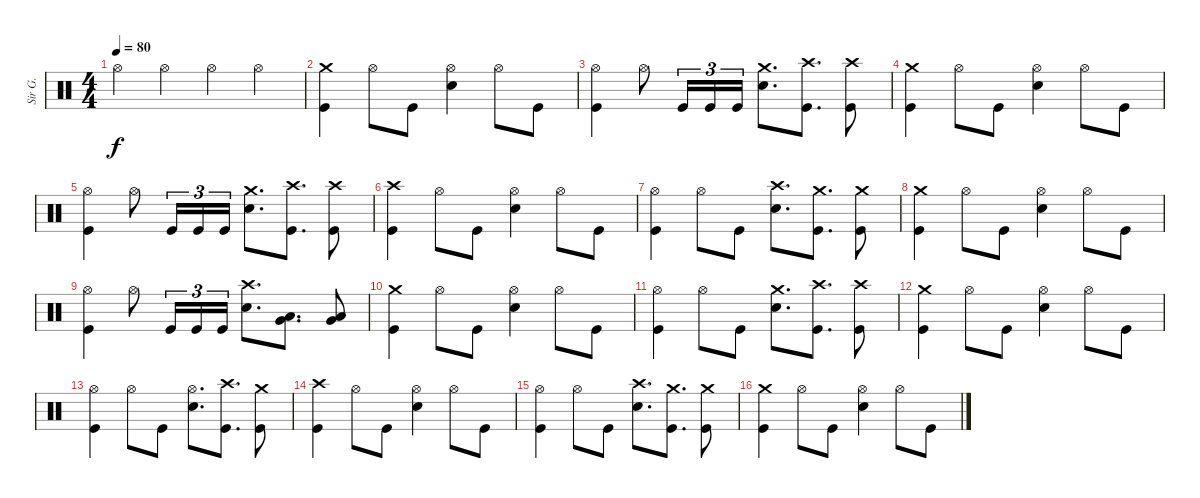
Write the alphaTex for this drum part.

\track ("Sir G." "Sir G.") {instrument percussion}
\staff {score}
\articulation defaults
\ts (4 4)
\tempo 80
\clef neutral
\ks c "Hi-Hat (open)".4{dy f} "Hi-Hat (open)".4 "Hi-Hat (open)".4 "Hi-Hat (open)".4
|
("Crash medium (hit)" "Kick (hit)").4 "Hi-Hat (open)".8 "Kick (hit)".8 ("Hi-Hat (open)" "Electric Snare (hit)").4 "Hi-Hat (open)".8 "Kick (hit)".8 |
("Hi-Hat (open)" "Kick (hit)").4 "Hi-Hat (open)".8 "Kick (hit)".16{tu (3 2)} "Kick (hit)".16{tu (3 2)} "Kick (hit)".16{tu (3 2)} ("Crash medium (hit)" "Electric Snare (hit)").8{d} ("Crash high (hit)" "Kick (hit)").8{d} ("Crash high (hit)" "Kick (hit)").8 |
("Crash medium (hit)" "Kick (hit)").4 "Hi-Hat (open)".8 "Kick (hit)".8 ("Hi-Hat (open)" "Electric Snare (hit)").4 "Hi-Hat (open)".8 "Kick (hit)".8 |
("Hi-Hat (open)" "Kick (hit)").4 "Hi-Hat (open)".8 "Kick (hit)".16{tu (3 2)} "Kick (hit)".16{tu (3 2)} "Kick (hit)".16{tu (3 2)} ("Crash medium (hit)" "Electric Snare (hit)").8{d} ("Crash high (hit)" "Kick (hit)").8{d} ("Crash high (hit)" "Kick (hit)").8 |
("Crash high (hit)" "Kick (hit)").4 "Hi-Hat (open)".8 "Kick (hit)".8 ("Hi-Hat (open)" "Electric Snare (hit)").4 "Hi-Hat (open)".8 "Kick (hit)".8 |
("Hi-Hat (open)" "Kick (hit)").4 "Hi-Hat (open)".8 "Kick (hit)".8 ("Crash high (hit)" "Electric Snare (hit)").8{d} ("Crash medium (hit)" "Kick (hit)").8{d} ("Crash medium (hit)" "Kick (hit)").8 |
("Crash medium (hit)" "Kick (hit)").4 "Hi-Hat (open)".8 "Kick (hit)".8 ("Hi-Hat (open)" "Electric Snare (hit)").4 "Hi-Hat (open)".8 "Kick (hit)".8 |
("Hi-Hat (open)" "Kick (hit)").4 "Hi-Hat (open)".8 "Kick (hit)".16{tu (3 2)} "Kick (hit)".16{tu (3 2)} "Kick (hit)".16{tu (3 2)} ("Crash high (hit)" "Electric Snare (hit)").8{d} ("Low Tom (hit)" "Very Low Tom (hit)").8{d} ("Low Tom (hit)" "Very Low Tom (hit)").8 |
("Crash medium (hit)" "Kick (hit)").4 "Hi-Hat (open)".8 "Kick (hit)".8 ("Hi-Hat (open)" "Electric Snare (hit)").4 "Hi-Hat (open)".8 "Kick (hit)".8 |
("Hi-Hat (open)" "Kick (hit)").4 "Hi-Hat (open)".8 "Kick (hit)".8 ("Crash medium (hit)" "Electric Snare (hit)").8{d} ("Crash high (hit)" "Kick (hit)").8{d} ("Crash high (hit)" "Kick (hit)").8 |
("Crash medium (hit)" "Kick (hit)").4 "Hi-Hat (open)".8 "Kick (hit)".8 ("Hi-Hat (open)" "Electric Snare (hit)").4 "Hi-Hat (open)".8 "Kick (hit)".8 |
("Hi-Hat (open)" "Kick (hit)").4 "Hi-Hat (open)".8 "Kick (hit)".8 ("Hi-Hat (open)" "Electric Snare (hit)").8{d} ("Crash high (hit)" "Kick (hit)").8{d} ("Crash medium (hit)" "Kick (hit)").8 |
("Crash high (hit)" "Kick (hit)").4 "Hi-Hat (open)".8 "Kick (hit)".8 ("Hi-Hat (open)" "Electric Snare (hit)").4 "Hi-Hat (open)".8 "Kick (hit)".8 |
("Hi-Hat (open)" "Kick (hit)").4 "Hi-Hat (open)".8 "Kick (hit)".8 ("Crash high (hit)" "Electric Snare (hit)").8{d} ("Crash medium (hit)" "Kick (hit)").8{d} ("Crash medium (hit)" "Kick (hit)").8 |
("Crash medium (hit)" "Kick (hit)").4 "Hi-Hat (open)".8 "Kick (hit)".8 ("Hi-Hat (open)" "Electric Snare (hit)").4 "Hi-Hat (open)".8 "Kick (hit)".8
